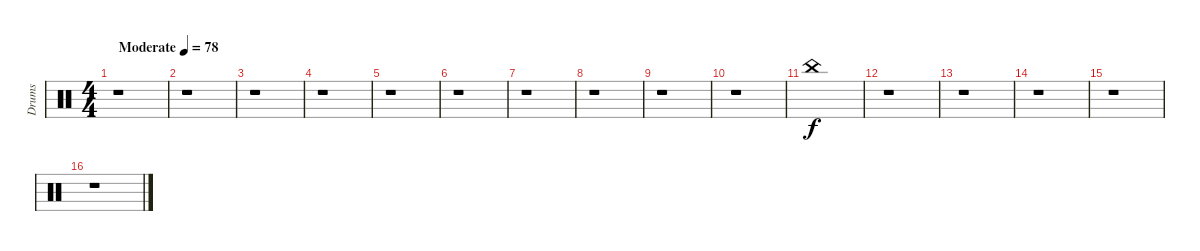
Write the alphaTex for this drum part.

\track ("Drums" "Drums") {instrument percussion}
\staff {score}
\articulation defaults
\ts (4 4)
\tempo (78 "Moderate")
\clef neutral
\ks c
r.1{dy f} |
r.1 |
r.1 |
r.1 |
r.1 |
r.1 |
r.1 |
r.1 |
r.1 |
r.1 |
"China (hit)".1 |
r.1 |
r.1 |
r.1 |
r.1 |
r.1
